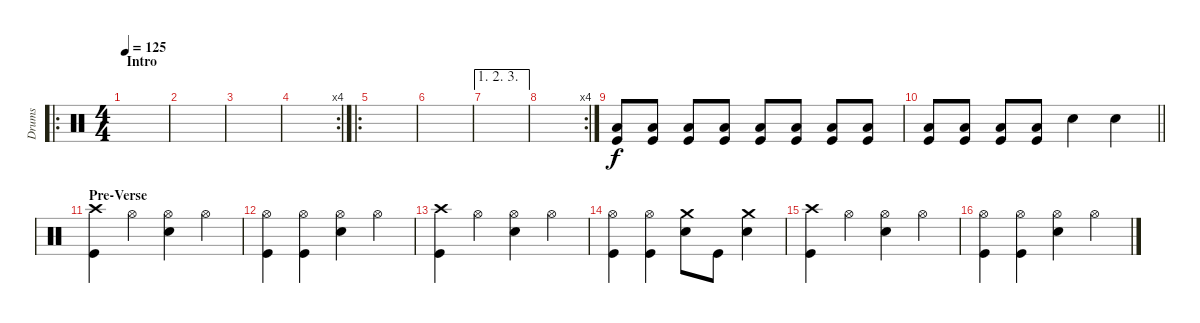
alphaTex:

\track ("Drums" "Drums") {instrument percussion}
\staff {score}
\articulation defaults
\ro
\ts (4 4)
\section ("" "Intro")
\tempo 125
\clef neutral
\ks c
|
|
|
\rc 4
|
\ro
|
|
\ae (1 2 3)
|
\rc 4
|
("Low Floor Tom (hit)" "Kick (hit)").8 ("Low Floor Tom (hit)" "Kick (hit)").8 ("Low Floor Tom (hit)" "Kick (hit)").8 ("Low Floor Tom (hit)" "Kick (hit)").8 ("Low Floor Tom (hit)" "Kick (hit)").8 ("Low Floor Tom (hit)" "Kick (hit)").8 ("Low Floor Tom (hit)" "Kick (hit)").8 ("Low Floor Tom (hit)" "Kick (hit)").8 |
\barLineRight lightlight
("Low Floor Tom (hit)" "Kick (hit)").8 ("Low Floor Tom (hit)" "Kick (hit)").8 ("Low Floor Tom (hit)" "Kick (hit)").8 ("Low Floor Tom (hit)" "Kick (hit)").8 "Snare (hit) 2".4 "Snare (hit) 2".4 |
\section ("" "Pre-Verse")
("Crash high (hit)" "Kick (hit)").4 "Hi-Hat (open)".4 ("Hi-Hat (open)" "Snare (hit) 2").4 "Hi-Hat (open)".4 |
("Hi-Hat (open)" "Kick (hit)").4 ("Hi-Hat (open)" "Kick (hit)").4 ("Hi-Hat (open)" "Snare (hit) 2").4 "Hi-Hat (open)".4 |
("Crash high (hit)" "Kick (hit)").4 "Hi-Hat (open)".4 ("Hi-Hat (open)" "Snare (hit) 2").4 "Hi-Hat (open)".4 |
("Hi-Hat (open)" "Kick (hit)").4 ("Hi-Hat (open)" "Kick (hit)").4 ("Crash medium (hit)" "Snare (hit) 2").8 "Kick (hit)".8 ("Crash medium (hit)" "Snare (hit) 2").4 |
("Crash high (hit)" "Kick (hit)").4 "Hi-Hat (open)".4 ("Hi-Hat (open)" "Snare (hit) 2").4 "Hi-Hat (open)".4 |
("Hi-Hat (open)" "Kick (hit)").4 ("Hi-Hat (open)" "Kick (hit)").4 ("Hi-Hat (open)" "Snare (hit) 2").4 "Hi-Hat (open)".4
